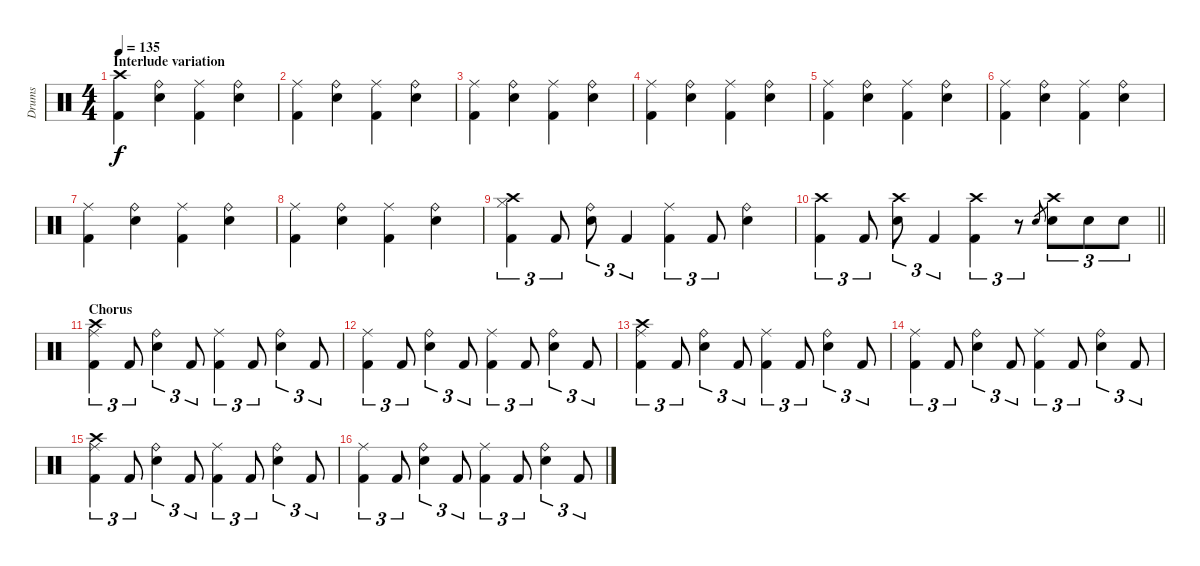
\track ("Drums" "Drums") {instrument percussion}
\staff {score}
\articulation defaults
\ts (4 4)
\section ("" "Interlude variation")
\tempo 135
\clef neutral
\ks c
("Crash high (hit)" "Kick (hit) 2").4{dy f} ("Ride (bell)" "Snare (hit) 2").4 ("Ride (middle)" "Kick (hit) 2").4 ("Ride (bell)" "Snare (hit) 2").4 |
("Ride (middle)" "Kick (hit) 2").4 ("Ride (bell)" "Snare (hit) 2").4 ("Ride (middle)" "Kick (hit) 2").4 ("Ride (bell)" "Snare (hit) 2").4 |
("Ride (middle)" "Kick (hit) 2").4 ("Ride (bell)" "Snare (hit) 2").4 ("Ride (middle)" "Kick (hit) 2").4 ("Ride (bell)" "Snare (hit) 2").4 |
("Ride (middle)" "Kick (hit) 2").4 ("Ride (bell)" "Snare (hit) 2").4 ("Ride (middle)" "Kick (hit) 2").4 ("Ride (bell)" "Snare (hit) 2").4 |
("Ride (middle)" "Kick (hit) 2").4 ("Ride (bell)" "Snare (hit) 2").4 ("Ride (middle)" "Kick (hit) 2").4 ("Ride (bell)" "Snare (hit) 2").4 |
("Ride (middle)" "Kick (hit) 2").4 ("Ride (bell)" "Snare (hit) 2").4 ("Ride (middle)" "Kick (hit) 2").4 ("Ride (bell)" "Snare (hit) 2").4 |
("Ride (middle)" "Kick (hit) 2").4 ("Ride (bell)" "Snare (hit) 2").4 ("Ride (middle)" "Kick (hit) 2").4 ("Ride (bell)" "Snare (hit) 2").4 |
("Ride (middle)" "Kick (hit) 2").4 ("Ride (bell)" "Snare (hit) 2").4 ("Ride (middle)" "Kick (hit) 2").4 ("Ride (bell)" "Snare (hit) 2").4 |
("Crash high (hit)" "Hi-Hat (closed)" "Kick (hit) 2").4{tu (3 2)} "Kick (hit) 2".8{tu (3 2)} ("Ride (bell)" "Snare (hit) 2").8{tu (3 2)} "Kick (hit) 2".4{tu (3 2)} ("Ride (middle)" "Kick (hit) 2").4{tu (3 2)} "Kick (hit) 2".8{tu (3 2)} ("Ride (bell)" "Snare (hit) 2").4 |
\barLineRight lightlight
("Crash high (hit)" "Kick (hit) 2").4{tu (3 2)} "Kick (hit) 2".8{tu (3 2)} ("Crash high (hit)" "Snare (hit) 2").8{tu (3 2)} "Kick (hit) 2".4{tu (3 2)} ("Crash high (hit)" "Kick (hit) 2").4{tu (3 2)} r.8{tu (3 2)} "Snare (hit) 2".8{gr} ("Crash high (hit)" "Snare (hit) 2").8{tu (3 2)} "Snare (hit) 2".8{tu (3 2)} "Snare (hit) 2".8{tu (3 2)} |
\section ("" "Chorus")
("Crash high (hit)" "Ride (middle)" "Kick (hit) 2").4{tu (3 2)} "Kick (hit) 2".8{tu (3 2)} ("Ride (bell)" "Snare (hit) 2").4{tu (3 2)} "Kick (hit) 2".8{tu (3 2)} ("Ride (middle)" "Kick (hit) 2").4{tu (3 2)} "Kick (hit) 2".8{tu (3 2)} ("Ride (bell)" "Snare (hit) 2").4{tu (3 2)} "Kick (hit) 2".8{tu (3 2)} |
("Ride (middle)" "Kick (hit) 2").4{tu (3 2)} "Kick (hit) 2".8{tu (3 2)} ("Ride (bell)" "Snare (hit) 2").4{tu (3 2)} "Kick (hit) 2".8{tu (3 2)} ("Ride (middle)" "Kick (hit) 2").4{tu (3 2)} "Kick (hit) 2".8{tu (3 2)} ("Ride (bell)" "Snare (hit) 2").4{tu (3 2)} "Kick (hit) 2".8{tu (3 2)} |
("Crash high (hit)" "Ride (middle)" "Kick (hit) 2").4{tu (3 2)} "Kick (hit) 2".8{tu (3 2)} ("Ride (bell)" "Snare (hit) 2").4{tu (3 2)} "Kick (hit) 2".8{tu (3 2)} ("Ride (middle)" "Kick (hit) 2").4{tu (3 2)} "Kick (hit) 2".8{tu (3 2)} ("Ride (bell)" "Snare (hit) 2").4{tu (3 2)} "Kick (hit) 2".8{tu (3 2)} |
("Ride (middle)" "Kick (hit) 2").4{tu (3 2)} "Kick (hit) 2".8{tu (3 2)} ("Ride (bell)" "Snare (hit) 2").4{tu (3 2)} "Kick (hit) 2".8{tu (3 2)} ("Ride (middle)" "Kick (hit) 2").4{tu (3 2)} "Kick (hit) 2".8{tu (3 2)} ("Ride (bell)" "Snare (hit) 2").4{tu (3 2)} "Kick (hit) 2".8{tu (3 2)} |
("Crash high (hit)" "Ride (middle)" "Kick (hit) 2").4{tu (3 2)} "Kick (hit) 2".8{tu (3 2)} ("Ride (bell)" "Snare (hit) 2").4{tu (3 2)} "Kick (hit) 2".8{tu (3 2)} ("Ride (middle)" "Kick (hit) 2").4{tu (3 2)} "Kick (hit) 2".8{tu (3 2)} ("Ride (bell)" "Snare (hit) 2").4{tu (3 2)} "Kick (hit) 2".8{tu (3 2)} |
("Ride (middle)" "Kick (hit) 2").4{tu (3 2)} "Kick (hit) 2".8{tu (3 2)} ("Ride (bell)" "Snare (hit) 2").4{tu (3 2)} "Kick (hit) 2".8{tu (3 2)} ("Ride (middle)" "Kick (hit) 2").4{tu (3 2)} "Kick (hit) 2".8{tu (3 2)} ("Ride (bell)" "Snare (hit) 2").4{tu (3 2)} "Kick (hit) 2".8{tu (3 2)}
